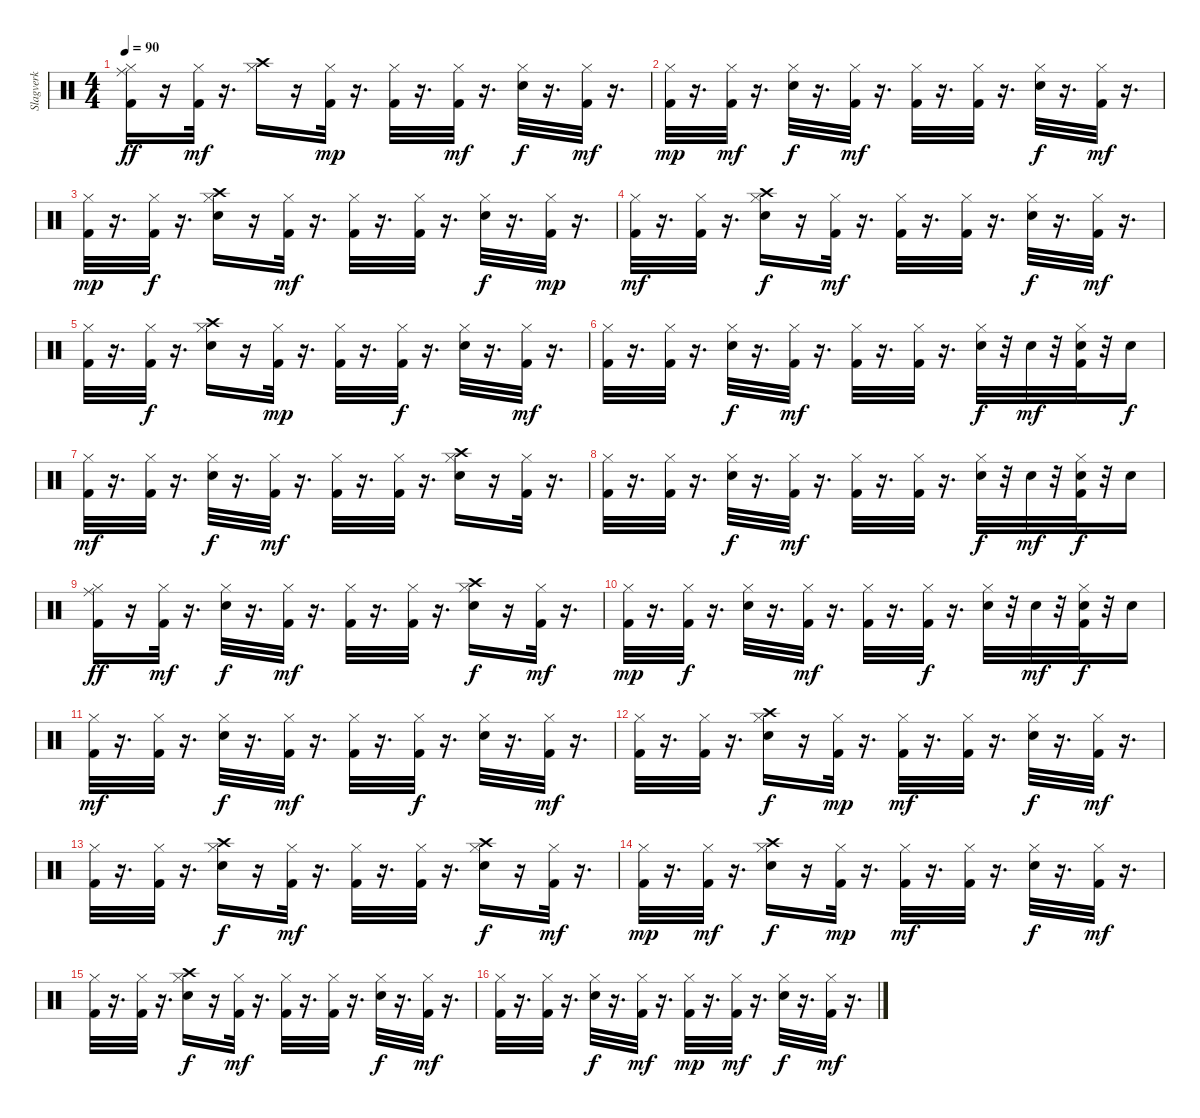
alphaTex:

\track ("Slagverk" "Slagverk") {instrument percussion}
\staff {score}
\articulation defaults
\ts (4 4)
\tempo 90
\clef neutral
\ks c
("Kick (hit) 2" "Hi-Hat (closed)" "Ride (middle)").16{dy ff} r.16 ("Kick (hit) 2" "Hi-Hat (closed)").32{dy mf} r.16{d} ("Hi-Hat (closed)" "Crash high (hit)").16 r.16 ("Kick (hit) 2" "Hi-Hat (closed)").32{dy mp} r.16{d} ("Kick (hit) 2" "Hi-Hat (closed)").32 r.16{d} ("Kick (hit) 2" "Hi-Hat (closed)").32{dy mf} r.16{d} ("Snare (hit) 2" "Hi-Hat (closed)").32{dy f} r.16{d} ("Kick (hit) 2" "Hi-Hat (closed)").32{dy mf} r.16{d} |
("Kick (hit) 2" "Hi-Hat (closed)").32{dy mp} r.16{d} ("Kick (hit) 2" "Hi-Hat (closed)").32{dy mf} r.16{d} ("Snare (hit) 2" "Hi-Hat (closed)").32{dy f} r.16{d} ("Kick (hit) 2" "Hi-Hat (closed)").32{dy mf} r.16{d} ("Kick (hit) 2" "Hi-Hat (closed)").32 r.16{d} ("Kick (hit) 2" "Hi-Hat (closed)").32 r.16{d} ("Snare (hit) 2" "Hi-Hat (closed)").32{dy f} r.16{d} ("Kick (hit) 2" "Hi-Hat (closed)").32{dy mf} r.16{d} |
("Kick (hit) 2" "Hi-Hat (closed)").32{dy mp} r.16{d} ("Kick (hit) 2" "Hi-Hat (closed)").32{dy f} r.16{d} ("Snare (hit) 2" "Hi-Hat (closed)" "Crash high (hit)").16 r.16 ("Kick (hit) 2" "Hi-Hat (closed)").32{dy mf} r.16{d} ("Kick (hit) 2" "Hi-Hat (closed)").32 r.16{d} ("Kick (hit) 2" "Hi-Hat (closed)").32 r.16{d} ("Snare (hit) 2" "Hi-Hat (closed)").32{dy f} r.16{d} ("Kick (hit) 2" "Hi-Hat (closed)").32{dy mp} r.16{d} |
("Kick (hit) 2" "Hi-Hat (closed)").32{dy mf} r.16{d} ("Kick (hit) 2" "Hi-Hat (closed)").32 r.16{d} ("Snare (hit) 2" "Hi-Hat (closed)" "Crash high (hit)").16{dy f} r.16 ("Kick (hit) 2" "Hi-Hat (closed)").32{dy mf} r.16{d} ("Kick (hit) 2" "Hi-Hat (closed)").32 r.16{d} ("Kick (hit) 2" "Hi-Hat (closed)").32 r.16{d} ("Snare (hit) 2" "Hi-Hat (closed)").32{dy f} r.16{d} ("Kick (hit) 2" "Hi-Hat (closed)").32{dy mf} r.16{d} |
("Kick (hit) 2" "Hi-Hat (closed)").32 r.16{d} ("Kick (hit) 2" "Hi-Hat (closed)").32{dy f} r.16{d} ("Snare (hit) 2" "Hi-Hat (closed)" "Crash high (hit)").16 r.16 ("Kick (hit) 2" "Hi-Hat (closed)").32{dy mp} r.16{d} ("Kick (hit) 2" "Hi-Hat (closed)").32 r.16{d} ("Kick (hit) 2" "Hi-Hat (closed)").32{dy f} r.16{d} ("Snare (hit) 2" "Hi-Hat (closed)").32 r.16{d} ("Kick (hit) 2" "Hi-Hat (closed)").32{dy mf} r.16{d} |
("Kick (hit) 2" "Hi-Hat (closed)").32 r.16{d} ("Kick (hit) 2" "Hi-Hat (closed)").32 r.16{d} ("Snare (hit) 2" "Hi-Hat (closed)").32{dy f} r.16{d} ("Kick (hit) 2" "Hi-Hat (closed)").32{dy mf} r.16{d} ("Kick (hit) 2" "Hi-Hat (closed)").32 r.16{d} ("Kick (hit) 2" "Hi-Hat (closed)").32 r.16{d} ("Snare (hit) 2" "Hi-Hat (closed)").32{dy f} r.32 "Snare (hit) 2".32{dy mf} r.32 ("Kick (hit) 2" "Snare (hit) 2" "Hi-Hat (closed)").32 r.32 "Snare (hit) 2".16{dy f} |
("Kick (hit) 2" "Hi-Hat (closed)").32{dy mf} r.16{d} ("Kick (hit) 2" "Hi-Hat (closed)").32 r.16{d} ("Snare (hit) 2" "Hi-Hat (closed)").32{dy f} r.16{d} ("Kick (hit) 2" "Hi-Hat (closed)").32{dy mf} r.16{d} ("Kick (hit) 2" "Hi-Hat (closed)").32 r.16{d} ("Kick (hit) 2" "Hi-Hat (closed)").32 r.16{d} ("Snare (hit) 2" "Hi-Hat (closed)" "Crash high (hit)").16 r.16 ("Kick (hit) 2" "Hi-Hat (closed)").32 r.16{d} |
("Kick (hit) 2" "Hi-Hat (closed)").32 r.16{d} ("Kick (hit) 2" "Hi-Hat (closed)").32 r.16{d} ("Snare (hit) 2" "Hi-Hat (closed)").32{dy f} r.16{d} ("Kick (hit) 2" "Hi-Hat (closed)").32{dy mf} r.16{d} ("Kick (hit) 2" "Hi-Hat (closed)").32 r.16{d} ("Kick (hit) 2" "Hi-Hat (closed)").32 r.16{d} ("Snare (hit) 2" "Hi-Hat (closed)").32{dy f} r.32 "Snare (hit) 2".32{dy mf} r.32 ("Kick (hit) 2" "Snare (hit) 2" "Hi-Hat (closed)").32{dy f} r.32 "Snare (hit) 2".16 |
("Kick (hit) 2" "Hi-Hat (closed)" "Ride (middle)").16{dy ff} r.16 ("Kick (hit) 2" "Hi-Hat (closed)").32{dy mf} r.16{d} ("Snare (hit) 2" "Hi-Hat (closed)").32{dy f} r.16{d} ("Kick (hit) 2" "Hi-Hat (closed)").32{dy mf} r.16{d} ("Kick (hit) 2" "Hi-Hat (closed)").32 r.16{d} ("Kick (hit) 2" "Hi-Hat (closed)").32 r.16{d} ("Snare (hit) 2" "Hi-Hat (closed)" "Crash high (hit)").16{dy f} r.16 ("Kick (hit) 2" "Hi-Hat (closed)").32{dy mf} r.16{d} |
("Kick (hit) 2" "Hi-Hat (closed)").32{dy mp} r.16{d} ("Kick (hit) 2" "Hi-Hat (closed)").32{dy f} r.16{d} ("Snare (hit) 2" "Hi-Hat (closed)").32 r.16{d} ("Kick (hit) 2" "Hi-Hat (closed)").32{dy mf} r.16{d} ("Kick (hit) 2" "Hi-Hat (closed)").32 r.16{d} ("Kick (hit) 2" "Hi-Hat (closed)").32{dy f} r.16{d} ("Snare (hit) 2" "Hi-Hat (closed)").32 r.32 "Snare (hit) 2".32{dy mf} r.32 ("Kick (hit) 2" "Snare (hit) 2" "Hi-Hat (closed)").32{dy f} r.32 "Snare (hit) 2".16 |
("Kick (hit) 2" "Hi-Hat (closed)").32{dy mf} r.16{d} ("Kick (hit) 2" "Hi-Hat (closed)").32 r.16{d} ("Snare (hit) 2" "Hi-Hat (closed)").32{dy f} r.16{d} ("Kick (hit) 2" "Hi-Hat (closed)").32{dy mf} r.16{d} ("Kick (hit) 2" "Hi-Hat (closed)").32 r.16{d} ("Kick (hit) 2" "Hi-Hat (closed)").32{dy f} r.16{d} ("Snare (hit) 2" "Hi-Hat (closed)").32 r.16{d} ("Kick (hit) 2" "Hi-Hat (closed)").32{dy mf} r.16{d} |
("Kick (hit) 2" "Hi-Hat (closed)").32 r.16{d} ("Kick (hit) 2" "Hi-Hat (closed)").32 r.16{d} ("Snare (hit) 2" "Hi-Hat (closed)" "Crash high (hit)").16{dy f} r.16 ("Kick (hit) 2" "Hi-Hat (closed)").32{dy mp} r.16{d} ("Kick (hit) 2" "Hi-Hat (closed)").32{dy mf} r.16{d} ("Kick (hit) 2" "Hi-Hat (closed)").32 r.16{d} ("Snare (hit) 2" "Hi-Hat (closed)").32{dy f} r.16{d} ("Kick (hit) 2" "Hi-Hat (closed)").32{dy mf} r.16{d} |
("Kick (hit) 2" "Hi-Hat (closed)").32 r.16{d} ("Kick (hit) 2" "Hi-Hat (closed)").32 r.16{d} ("Snare (hit) 2" "Hi-Hat (closed)" "Crash high (hit)").16{dy f} r.16 ("Kick (hit) 2" "Hi-Hat (closed)").32{dy mf} r.16{d} ("Kick (hit) 2" "Hi-Hat (closed)").32 r.16{d} ("Kick (hit) 2" "Hi-Hat (closed)").32 r.16{d} ("Snare (hit) 2" "Hi-Hat (closed)" "Crash high (hit)").16{dy f} r.16 ("Kick (hit) 2" "Hi-Hat (closed)").32{dy mf} r.16{d} |
("Kick (hit) 2" "Hi-Hat (closed)").32{dy mp} r.16{d} ("Kick (hit) 2" "Hi-Hat (closed)").32{dy mf} r.16{d} ("Snare (hit) 2" "Hi-Hat (closed)" "Crash high (hit)").16{dy f} r.16 ("Kick (hit) 2" "Hi-Hat (closed)").32{dy mp} r.16{d} ("Kick (hit) 2" "Hi-Hat (closed)").32{dy mf} r.16{d} ("Kick (hit) 2" "Hi-Hat (closed)").32 r.16{d} ("Snare (hit) 2" "Hi-Hat (closed)").32{dy f} r.16{d} ("Kick (hit) 2" "Hi-Hat (closed)").32{dy mf} r.16{d} |
("Kick (hit) 2" "Hi-Hat (closed)").32 r.16{d} ("Kick (hit) 2" "Hi-Hat (closed)").32 r.16{d} ("Snare (hit) 2" "Hi-Hat (closed)" "Crash high (hit)").16{dy f} r.16 ("Kick (hit) 2" "Hi-Hat (closed)").32{dy mf} r.16{d} ("Kick (hit) 2" "Hi-Hat (closed)").32 r.16{d} ("Kick (hit) 2" "Hi-Hat (closed)").32 r.16{d} ("Snare (hit) 2" "Hi-Hat (closed)").32{dy f} r.16{d} ("Kick (hit) 2" "Hi-Hat (closed)").32{dy mf} r.16{d} |
("Kick (hit) 2" "Hi-Hat (closed)").32 r.16{d} ("Kick (hit) 2" "Hi-Hat (closed)").32 r.16{d} ("Snare (hit) 2" "Hi-Hat (closed)").32{dy f} r.16{d} ("Kick (hit) 2" "Hi-Hat (closed)").32{dy mf} r.16{d} ("Kick (hit) 2" "Hi-Hat (closed)").32{dy mp} r.16{d} ("Kick (hit) 2" "Hi-Hat (closed)").32{dy mf} r.16{d} ("Snare (hit) 2" "Hi-Hat (closed)").32{dy f} r.16{d} ("Kick (hit) 2" "Hi-Hat (closed)").32{dy mf} r.16{d}
